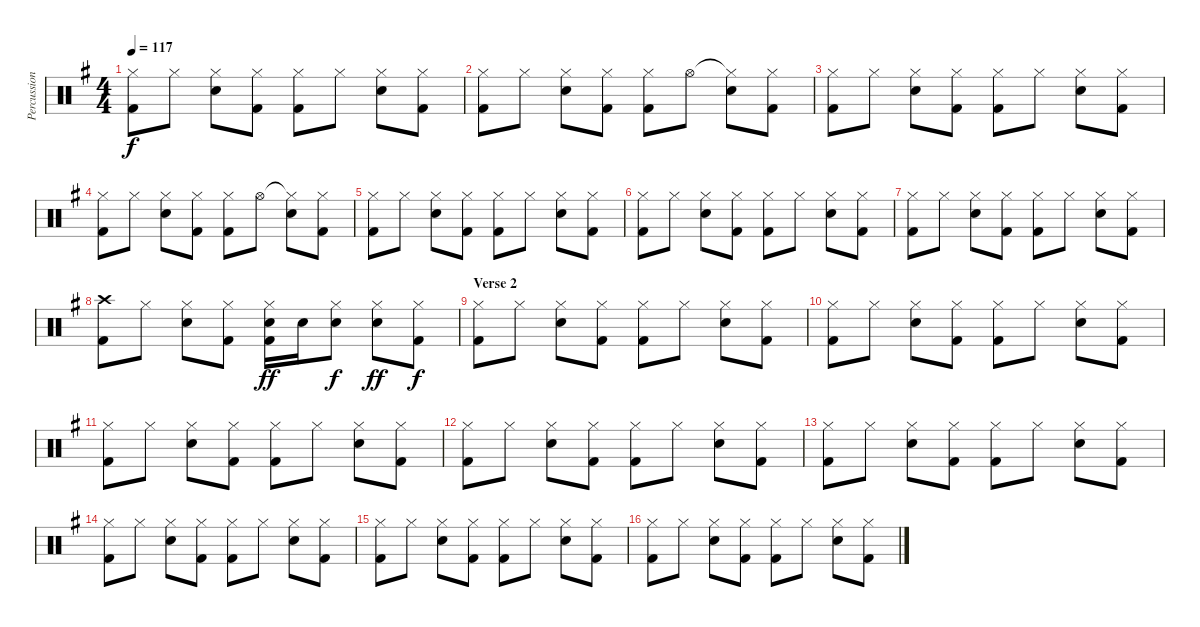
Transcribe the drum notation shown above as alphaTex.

\track ("Percussion" "Percussion") {instrument percussion}
\staff {score}
\articulation defaults
\ts (4 4)
\tempo 117
\clef neutral
\ks g
("Hi-Hat (closed)" "Kick (hit) 2").8{dy f} "Hi-Hat (closed)".8 ("Hi-Hat (closed)" "Electric Snare (hit)").8 ("Hi-Hat (closed)" "Kick (hit) 2").8 ("Hi-Hat (closed)" "Kick (hit) 2").8 "Hi-Hat (closed)".8 ("Hi-Hat (closed)" "Electric Snare (hit)").8 ("Hi-Hat (closed)" "Kick (hit) 2").8 |
("Hi-Hat (closed)" "Kick (hit) 2").8 "Hi-Hat (closed)".8 ("Hi-Hat (closed)" "Electric Snare (hit)").8 ("Hi-Hat (closed)" "Kick (hit) 2").8 ("Hi-Hat (closed)" "Kick (hit) 2").8 "Hi-Hat (open)".8 ("Hi-Hat (closed)"{t} "Electric Snare (hit)").8 ("Hi-Hat (closed)" "Kick (hit) 2").8 |
("Hi-Hat (closed)" "Kick (hit) 2").8 "Hi-Hat (closed)".8 ("Hi-Hat (closed)" "Electric Snare (hit)").8 ("Hi-Hat (closed)" "Kick (hit) 2").8 ("Hi-Hat (closed)" "Kick (hit) 2").8 "Hi-Hat (closed)".8 ("Hi-Hat (closed)" "Electric Snare (hit)").8 ("Hi-Hat (closed)" "Kick (hit) 2").8 |
("Hi-Hat (closed)" "Kick (hit) 2").8 "Hi-Hat (closed)".8 ("Hi-Hat (closed)" "Electric Snare (hit)").8 ("Hi-Hat (closed)" "Kick (hit) 2").8 ("Hi-Hat (closed)" "Kick (hit) 2").8 "Hi-Hat (open)".8 ("Hi-Hat (closed)"{t} "Electric Snare (hit)").8 ("Hi-Hat (closed)" "Kick (hit) 2").8 |
("Hi-Hat (closed)" "Kick (hit) 2").8 "Hi-Hat (closed)".8 ("Hi-Hat (closed)" "Electric Snare (hit)").8 ("Hi-Hat (closed)" "Kick (hit) 2").8 ("Hi-Hat (closed)" "Kick (hit) 2").8 "Hi-Hat (closed)".8 ("Hi-Hat (closed)" "Electric Snare (hit)").8 ("Hi-Hat (closed)" "Kick (hit) 2").8 |
("Hi-Hat (closed)" "Kick (hit) 2").8 "Hi-Hat (closed)".8 ("Hi-Hat (closed)" "Electric Snare (hit)").8 ("Hi-Hat (closed)" "Kick (hit) 2").8 ("Hi-Hat (closed)" "Kick (hit) 2").8 "Hi-Hat (closed)".8 ("Hi-Hat (closed)" "Electric Snare (hit)").8 ("Hi-Hat (closed)" "Kick (hit) 2").8 |
("Hi-Hat (closed)" "Kick (hit) 2").8 "Hi-Hat (closed)".8 ("Hi-Hat (closed)" "Electric Snare (hit)").8 ("Hi-Hat (closed)" "Kick (hit) 2").8 ("Hi-Hat (closed)" "Kick (hit) 2").8 "Hi-Hat (closed)".8 ("Hi-Hat (closed)" "Electric Snare (hit)").8 ("Hi-Hat (closed)" "Kick (hit) 2").8 |
("Crash high (hit)" "Kick (hit) 2").8 "Hi-Hat (closed)".8 ("Hi-Hat (closed)" "Electric Snare (hit)").8 ("Hi-Hat (closed)" "Kick (hit) 2").8 ("Hi-Hat (closed)" "Electric Snare (hit)" "Kick (hit) 2").16{dy ff} "Electric Snare (hit)".16 ("Hi-Hat (closed)" "Electric Snare (hit)").8{dy f} ("Hi-Hat (closed)" "Electric Snare (hit)").8{dy ff} ("Hi-Hat (closed)" "Kick (hit) 2").8{dy f} |
\section ("" "Verse 2")
("Hi-Hat (closed)" "Kick (hit) 2").8 "Hi-Hat (closed)".8 ("Hi-Hat (closed)" "Electric Snare (hit)").8 ("Hi-Hat (closed)" "Kick (hit) 2").8 ("Hi-Hat (closed)" "Kick (hit) 2").8 "Hi-Hat (closed)".8 ("Hi-Hat (closed)" "Electric Snare (hit)").8 ("Hi-Hat (closed)" "Kick (hit) 2").8 |
("Hi-Hat (closed)" "Kick (hit) 2").8 "Hi-Hat (closed)".8 ("Hi-Hat (closed)" "Electric Snare (hit)").8 ("Hi-Hat (closed)" "Kick (hit) 2").8 ("Hi-Hat (closed)" "Kick (hit) 2").8 "Hi-Hat (closed)".8 ("Hi-Hat (closed)" "Electric Snare (hit)").8 ("Hi-Hat (closed)" "Kick (hit) 2").8 |
("Hi-Hat (closed)" "Kick (hit) 2").8 "Hi-Hat (closed)".8 ("Hi-Hat (closed)" "Electric Snare (hit)").8 ("Hi-Hat (closed)" "Kick (hit) 2").8 ("Hi-Hat (closed)" "Kick (hit) 2").8 "Hi-Hat (closed)".8 ("Hi-Hat (closed)" "Electric Snare (hit)").8 ("Hi-Hat (closed)" "Kick (hit) 2").8 |
("Hi-Hat (closed)" "Kick (hit) 2").8 "Hi-Hat (closed)".8 ("Hi-Hat (closed)" "Electric Snare (hit)").8 ("Hi-Hat (closed)" "Kick (hit) 2").8 ("Hi-Hat (closed)" "Kick (hit) 2").8 "Hi-Hat (closed)".8 ("Hi-Hat (closed)" "Electric Snare (hit)").8 ("Hi-Hat (closed)" "Kick (hit) 2").8 |
("Hi-Hat (closed)" "Kick (hit) 2").8 "Hi-Hat (closed)".8 ("Hi-Hat (closed)" "Electric Snare (hit)").8 ("Hi-Hat (closed)" "Kick (hit) 2").8 ("Hi-Hat (closed)" "Kick (hit) 2").8 "Hi-Hat (closed)".8 ("Hi-Hat (closed)" "Electric Snare (hit)").8 ("Hi-Hat (closed)" "Kick (hit) 2").8 |
("Hi-Hat (closed)" "Kick (hit) 2").8 "Hi-Hat (closed)".8 ("Hi-Hat (closed)" "Electric Snare (hit)").8 ("Hi-Hat (closed)" "Kick (hit) 2").8 ("Hi-Hat (closed)" "Kick (hit) 2").8 "Hi-Hat (closed)".8 ("Hi-Hat (closed)" "Electric Snare (hit)").8 ("Hi-Hat (closed)" "Kick (hit) 2").8 |
("Hi-Hat (closed)" "Kick (hit) 2").8 "Hi-Hat (closed)".8 ("Hi-Hat (closed)" "Electric Snare (hit)").8 ("Hi-Hat (closed)" "Kick (hit) 2").8 ("Hi-Hat (closed)" "Kick (hit) 2").8 "Hi-Hat (closed)".8 ("Hi-Hat (closed)" "Electric Snare (hit)").8 ("Hi-Hat (closed)" "Kick (hit) 2").8 |
("Hi-Hat (closed)" "Kick (hit) 2").8 "Hi-Hat (closed)".8 ("Hi-Hat (closed)" "Electric Snare (hit)").8 ("Hi-Hat (closed)" "Kick (hit) 2").8 ("Hi-Hat (closed)" "Kick (hit) 2").8 "Hi-Hat (closed)".8 ("Hi-Hat (closed)" "Electric Snare (hit)").8 ("Hi-Hat (closed)" "Kick (hit) 2").8
